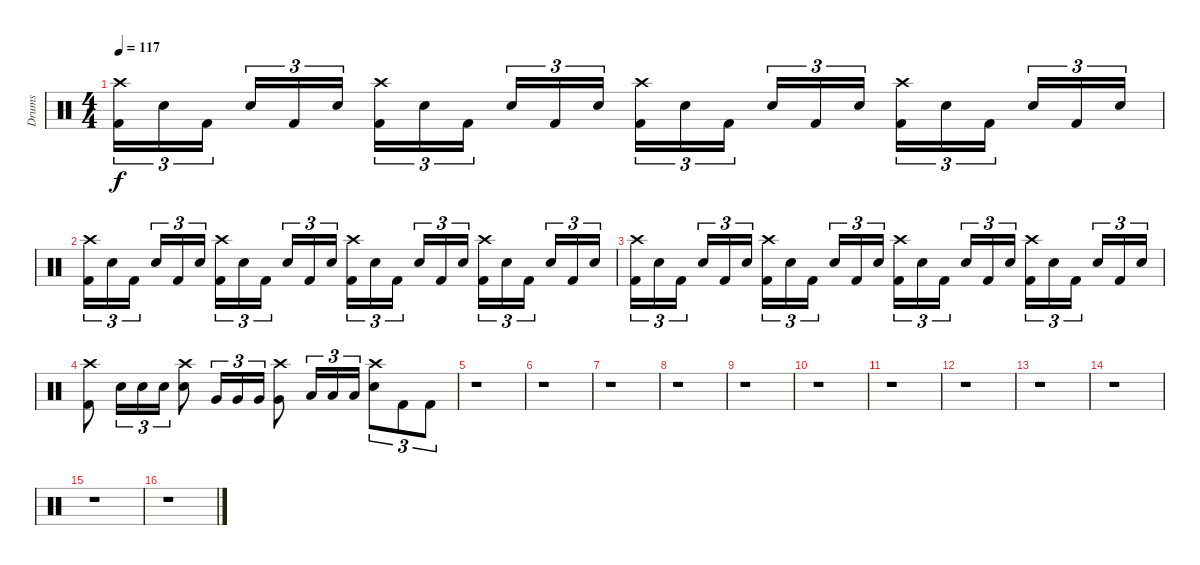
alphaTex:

\track ("Drums" "Drums") {instrument percussion}
\staff {score}
\articulation defaults
\ts (4 4)
\tempo 117
\clef neutral
\ks c
("Crash high (hit)" "Kick (hit) 2").16{tu (3 2) dy f} "Snare (hit) 2".16{tu (3 2)} "Kick (hit) 2".16{tu (3 2) beam splitsecondary} "Snare (hit) 2".16{tu (3 2)} "Kick (hit) 2".16{tu (3 2)} "Snare (hit) 2".16{tu (3 2)} ("Crash high (hit)" "Kick (hit) 2").16{tu (3 2)} "Snare (hit) 2".16{tu (3 2)} "Kick (hit) 2".16{tu (3 2) beam splitsecondary} "Snare (hit) 2".16{tu (3 2)} "Kick (hit) 2".16{tu (3 2)} "Snare (hit) 2".16{tu (3 2)} ("Crash high (hit)" "Kick (hit) 2").16{tu (3 2)} "Snare (hit) 2".16{tu (3 2)} "Kick (hit) 2".16{tu (3 2) beam splitsecondary} "Snare (hit) 2".16{tu (3 2)} "Kick (hit) 2".16{tu (3 2)} "Snare (hit) 2".16{tu (3 2)} ("Crash high (hit)" "Kick (hit) 2").16{tu (3 2)} "Snare (hit) 2".16{tu (3 2)} "Kick (hit) 2".16{tu (3 2) beam splitsecondary} "Snare (hit) 2".16{tu (3 2)} "Kick (hit) 2".16{tu (3 2)} "Snare (hit) 2".16{tu (3 2)} |
("Crash high (hit)" "Kick (hit) 2").16{tu (3 2)} "Snare (hit) 2".16{tu (3 2)} "Kick (hit) 2".16{tu (3 2) beam splitsecondary} "Snare (hit) 2".16{tu (3 2)} "Kick (hit) 2".16{tu (3 2)} "Snare (hit) 2".16{tu (3 2)} ("Crash high (hit)" "Kick (hit) 2").16{tu (3 2)} "Snare (hit) 2".16{tu (3 2)} "Kick (hit) 2".16{tu (3 2) beam splitsecondary} "Snare (hit) 2".16{tu (3 2)} "Kick (hit) 2".16{tu (3 2)} "Snare (hit) 2".16{tu (3 2)} ("Crash high (hit)" "Kick (hit) 2").16{tu (3 2)} "Snare (hit) 2".16{tu (3 2)} "Kick (hit) 2".16{tu (3 2) beam splitsecondary} "Snare (hit) 2".16{tu (3 2)} "Kick (hit) 2".16{tu (3 2)} "Snare (hit) 2".16{tu (3 2)} ("Crash high (hit)" "Kick (hit) 2").16{tu (3 2)} "Snare (hit) 2".16{tu (3 2)} "Kick (hit) 2".16{tu (3 2) beam splitsecondary} "Snare (hit) 2".16{tu (3 2)} "Kick (hit) 2".16{tu (3 2)} "Snare (hit) 2".16{tu (3 2)} |
("Crash high (hit)" "Kick (hit) 2").16{tu (3 2)} "Snare (hit) 2".16{tu (3 2)} "Kick (hit) 2".16{tu (3 2) beam splitsecondary} "Snare (hit) 2".16{tu (3 2)} "Kick (hit) 2".16{tu (3 2)} "Snare (hit) 2".16{tu (3 2)} ("Crash high (hit)" "Kick (hit) 2").16{tu (3 2)} "Snare (hit) 2".16{tu (3 2)} "Kick (hit) 2".16{tu (3 2) beam splitsecondary} "Snare (hit) 2".16{tu (3 2)} "Kick (hit) 2".16{tu (3 2)} "Snare (hit) 2".16{tu (3 2)} ("Crash high (hit)" "Kick (hit) 2").16{tu (3 2)} "Snare (hit) 2".16{tu (3 2)} "Kick (hit) 2".16{tu (3 2) beam splitsecondary} "Snare (hit) 2".16{tu (3 2)} "Kick (hit) 2".16{tu (3 2)} "Snare (hit) 2".16{tu (3 2)} ("Crash high (hit)" "Kick (hit) 2").16{tu (3 2)} "Snare (hit) 2".16{tu (3 2)} "Kick (hit) 2".16{tu (3 2) beam splitsecondary} "Snare (hit) 2".16{tu (3 2)} "Kick (hit) 2".16{tu (3 2)} "Snare (hit) 2".16{tu (3 2)} |
("Crash high (hit)" "Kick (hit) 2").8 "Snare (hit) 2".16{tu (3 2)} "Snare (hit) 2".16{tu (3 2)} "Snare (hit) 2".16{tu (3 2)} ("Crash high (hit)" "Snare (hit) 2").8 "Very Low Tom (hit)".16{tu (3 2)} "Very Low Tom (hit)".16{tu (3 2)} "Very Low Tom (hit)".16{tu (3 2)} ("Crash high (hit)" "Very Low Tom (hit)").8 "Low Floor Tom (hit)".16{tu (3 2)} "Low Floor Tom (hit)".16{tu (3 2)} "Low Floor Tom (hit)".16{tu (3 2)} ("Crash high (hit)" "Snare (hit) 2").8{tu (3 2)} "Kick (hit) 2".8{tu (3 2)} "Kick (hit) 2".8{tu (3 2)} |
r.1 |
r.1 |
r.1 |
r.1 |
r.1 |
r.1 |
r.1 |
r.1 |
r.1 |
r.1 |
r.1 |
r.1
